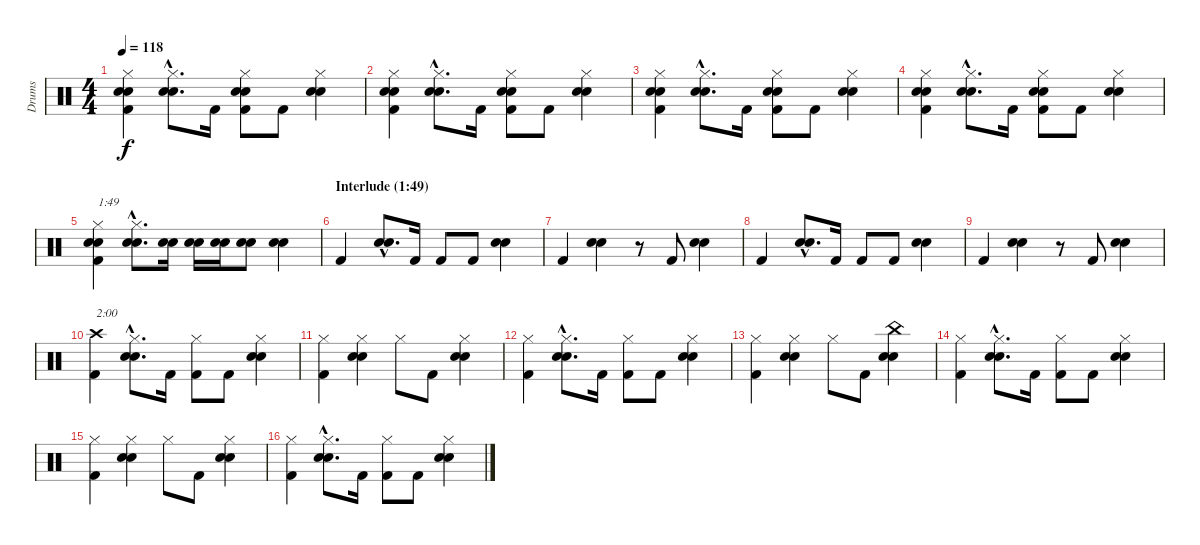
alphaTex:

\track ("Drums" "Drums") {instrument percussion}
\staff {score}
\articulation defaults
\ts (4 4)
\tempo 118
\clef neutral
\ks c
("Hi-Hat (closed)" "Electric Snare (hit)" "Snare (hit) 2" "Kick (hit) 2").4{dy f} ("Hi-Hat (closed)"{hac} "Electric Snare (hit)"{hac} "Snare (hit) 2"{hac}).8{d} "Kick (hit) 2".16 ("Hi-Hat (closed)" "Electric Snare (hit)" "Snare (hit) 2" "Kick (hit) 2").8 "Kick (hit) 2".8 ("Hi-Hat (closed)" "Electric Snare (hit)" "Snare (hit) 2").4 |
("Hi-Hat (closed)" "Electric Snare (hit)" "Snare (hit) 2" "Kick (hit) 2").4 ("Hi-Hat (closed)"{hac} "Electric Snare (hit)"{hac} "Snare (hit) 2"{hac}).8{d} "Kick (hit) 2".16 ("Hi-Hat (closed)" "Electric Snare (hit)" "Snare (hit) 2" "Kick (hit) 2").8 "Kick (hit) 2".8 ("Hi-Hat (closed)" "Electric Snare (hit)" "Snare (hit) 2").4 |
("Hi-Hat (closed)" "Electric Snare (hit)" "Snare (hit) 2" "Kick (hit) 2").4 ("Hi-Hat (closed)"{hac} "Electric Snare (hit)"{hac} "Snare (hit) 2"{hac}).8{d} "Kick (hit) 2".16 ("Hi-Hat (closed)" "Electric Snare (hit)" "Snare (hit) 2" "Kick (hit) 2").8 "Kick (hit) 2".8 ("Hi-Hat (closed)" "Electric Snare (hit)" "Snare (hit) 2").4 |
("Hi-Hat (closed)" "Electric Snare (hit)" "Snare (hit) 2" "Kick (hit) 2").4 ("Hi-Hat (closed)"{hac} "Electric Snare (hit)"{hac} "Snare (hit) 2"{hac}).8{d} "Kick (hit) 2".16 ("Hi-Hat (closed)" "Electric Snare (hit)" "Snare (hit) 2" "Kick (hit) 2").8 "Kick (hit) 2".8 ("Hi-Hat (closed)" "Electric Snare (hit)" "Snare (hit) 2").4 |
("Hi-Hat (closed)" "Electric Snare (hit)" "Snare (hit) 2" "Kick (hit) 2").4{txt "1:49"} ("Hi-Hat (closed)"{hac} "Electric Snare (hit)"{hac} "Snare (hit) 2"{hac}).8{d} ("Electric Snare (hit)" "Snare (hit) 2").16 ("Electric Snare (hit)" "Snare (hit) 2").16 ("Electric Snare (hit)" "Snare (hit) 2").16 ("Electric Snare (hit)" "Snare (hit) 2").8 ("Electric Snare (hit)" "Snare (hit) 2").4 |
\section ("" "Interlude (1:49)")
"Kick (hit) 2".4 ("Electric Snare (hit)"{hac} "Snare (hit) 2"{hac}).8{d} "Kick (hit) 2".16 "Kick (hit) 2".8 "Kick (hit) 2".8 ("Electric Snare (hit)" "Snare (hit) 2").4 |
"Kick (hit) 2".4 ("Electric Snare (hit)" "Snare (hit) 2").4 r.8 "Kick (hit) 2".8 ("Electric Snare (hit)" "Snare (hit) 2").4 |
"Kick (hit) 2".4 ("Electric Snare (hit)"{hac} "Snare (hit) 2"{hac}).8{d} "Kick (hit) 2".16 "Kick (hit) 2".8 "Kick (hit) 2".8 ("Electric Snare (hit)" "Snare (hit) 2").4 |
"Kick (hit) 2".4 ("Electric Snare (hit)" "Snare (hit) 2").4 r.8 "Kick (hit) 2".8 ("Electric Snare (hit)" "Snare (hit) 2").4 |
("Crash high (hit)" "Kick (hit) 2").4{txt "2:00"} ("Hi-Hat (closed)"{hac} "Electric Snare (hit)"{hac} "Snare (hit) 2"{hac}).8{d} "Kick (hit) 2".16 ("Hi-Hat (closed)" "Kick (hit) 2").8 "Kick (hit) 2".8 ("Hi-Hat (closed)" "Electric Snare (hit)" "Snare (hit) 2").4 |
("Hi-Hat (closed)" "Kick (hit) 2").4 ("Hi-Hat (closed)" "Electric Snare (hit)" "Snare (hit) 2").4 "Hi-Hat (closed)".8 "Kick (hit) 2".8 ("Hi-Hat (closed)" "Electric Snare (hit)" "Snare (hit) 2").4 |
("Hi-Hat (closed)" "Kick (hit) 2").4 ("Hi-Hat (closed)"{hac} "Electric Snare (hit)"{hac} "Snare (hit) 2"{hac}).8{d} "Kick (hit) 2".16 ("Hi-Hat (closed)" "Kick (hit) 2").8 "Kick (hit) 2".8 ("Hi-Hat (closed)" "Electric Snare (hit)" "Snare (hit) 2").4 |
("Hi-Hat (closed)" "Kick (hit) 2").4 ("Hi-Hat (closed)" "Electric Snare (hit)" "Snare (hit) 2").4 "Hi-Hat (closed)".8 "Kick (hit) 2".8 ("China (hit)" "Electric Snare (hit)" "Snare (hit) 2").4 |
("Hi-Hat (closed)" "Kick (hit) 2").4 ("Hi-Hat (closed)"{hac} "Electric Snare (hit)"{hac} "Snare (hit) 2"{hac}).8{d} "Kick (hit) 2".16 ("Hi-Hat (closed)" "Kick (hit) 2").8 "Kick (hit) 2".8 ("Hi-Hat (closed)" "Electric Snare (hit)" "Snare (hit) 2").4 |
("Hi-Hat (closed)" "Kick (hit) 2").4 ("Hi-Hat (closed)" "Electric Snare (hit)" "Snare (hit) 2").4 "Hi-Hat (closed)".8 "Kick (hit) 2".8 ("Hi-Hat (closed)" "Electric Snare (hit)" "Snare (hit) 2").4 |
("Hi-Hat (closed)" "Kick (hit) 2").4 ("Hi-Hat (closed)"{hac} "Electric Snare (hit)"{hac} "Snare (hit) 2"{hac}).8{d} "Kick (hit) 2".16 ("Hi-Hat (closed)" "Kick (hit) 2").8 "Kick (hit) 2".8 ("Hi-Hat (closed)" "Electric Snare (hit)" "Snare (hit) 2").4
